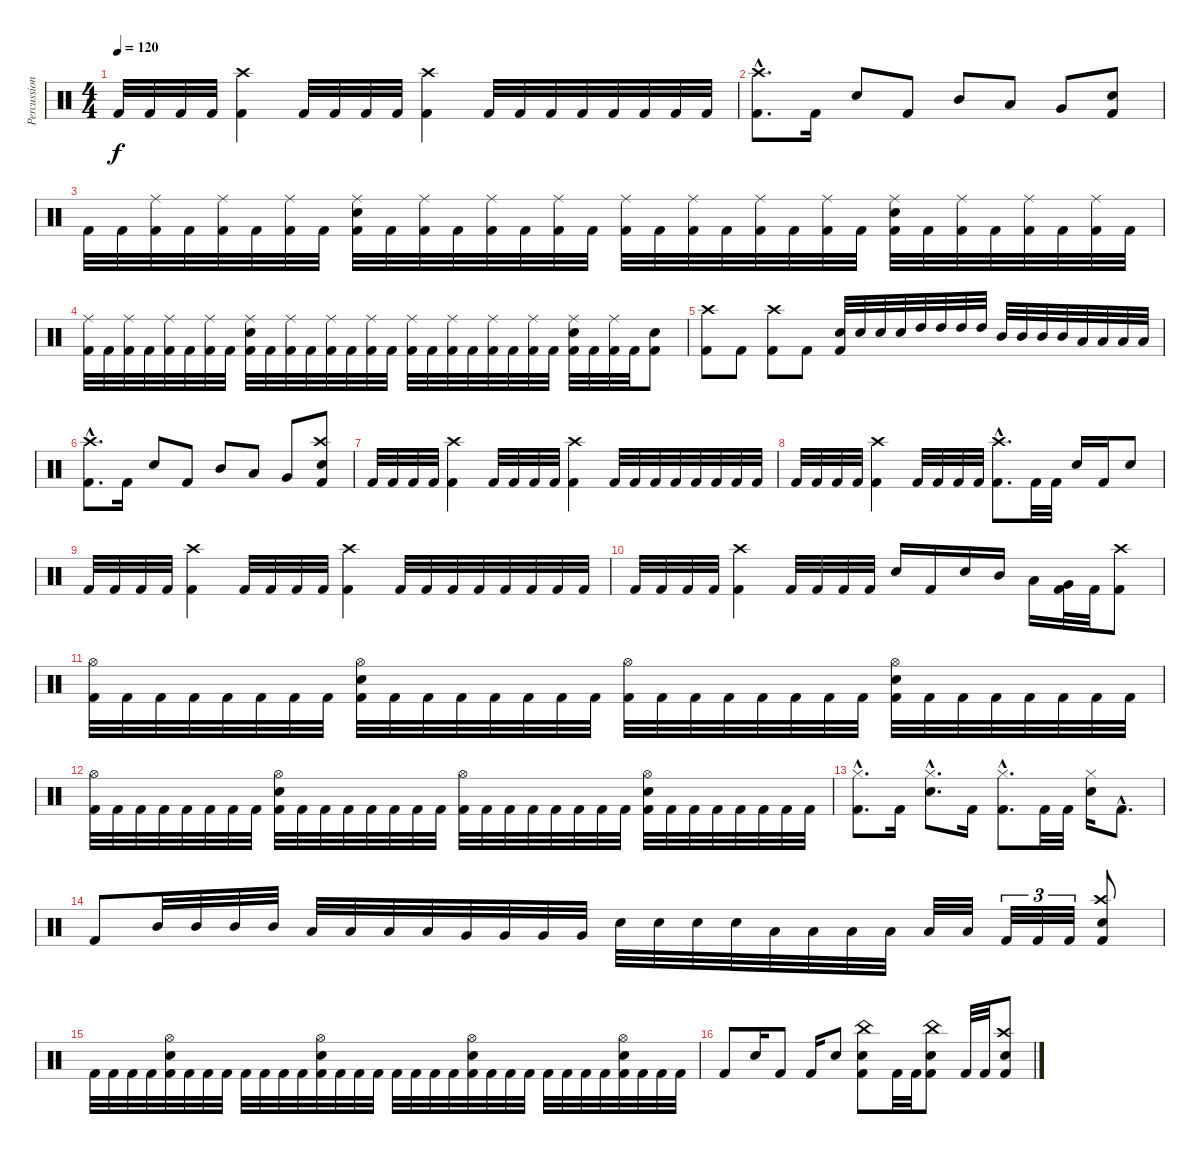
\track ("Percussion" "Percussion") {instrument percussion}
\staff {score}
\articulation defaults
\ts (4 4)
\tempo 120
\clef neutral
\ks c "Kick (hit) 2".32{dy f} "Kick (hit) 2".32 "Kick (hit) 2".32 "Kick (hit) 2".32
("Crash high (hit)" "Kick (hit) 2").4 "Kick (hit) 2".32 "Kick (hit) 2".32 "Kick (hit) 2".32 "Kick (hit) 2".32 ("Crash high (hit)" "Kick (hit) 2").4 "Kick (hit) 2".32 "Kick (hit) 2".32 "Kick (hit) 2".32 "Kick (hit) 2".32 "Kick (hit) 2".32 "Kick (hit) 2".32 "Kick (hit) 2".32 "Kick (hit) 2".32 |
("Crash high (hit)"{hac} "Kick (hit) 2"{hac}).8{d} "Kick (hit) 2".16 "Snare (hit) 2".8 "Kick (hit) 2".8 "Mid Tom (hit)".8 "Low Tom (hit)".8 "Very Low Tom (hit)".8 ("Snare (hit) 2" "Kick (hit) 2").8 |
"Kick (hit) 2".32 "Kick (hit) 2".32 ("Ride (middle)" "Kick (hit) 2").32 "Kick (hit) 2".32 ("Ride (middle)" "Kick (hit) 2").32 "Kick (hit) 2".32 ("Ride (middle)" "Kick (hit) 2").32 "Kick (hit) 2".32 ("Ride (middle)" "Snare (hit) 2" "Kick (hit) 2").32 "Kick (hit) 2".32 ("Ride (middle)" "Kick (hit) 2").32 "Kick (hit) 2".32 ("Ride (middle)" "Kick (hit) 2").32 "Kick (hit) 2".32 ("Ride (middle)" "Kick (hit) 2").32 "Kick (hit) 2".32 ("Ride (middle)" "Kick (hit) 2").32 "Kick (hit) 2".32 ("Ride (middle)" "Kick (hit) 2").32 "Kick (hit) 2".32 ("Ride (middle)" "Kick (hit) 2").32 "Kick (hit) 2".32 ("Ride (middle)" "Kick (hit) 2").32 "Kick (hit) 2".32 ("Ride (middle)" "Snare (hit) 2" "Kick (hit) 2").32 "Kick (hit) 2".32 ("Ride (middle)" "Kick (hit) 2").32 "Kick (hit) 2".32 ("Ride (middle)" "Kick (hit) 2").32 "Kick (hit) 2".32 ("Ride (middle)" "Kick (hit) 2").32 "Kick (hit) 2".32 |
("Ride (middle)" "Kick (hit) 2").32 "Kick (hit) 2".32 ("Ride (middle)" "Kick (hit) 2").32 "Kick (hit) 2".32 ("Ride (middle)" "Kick (hit) 2").32 "Kick (hit) 2".32 ("Ride (middle)" "Kick (hit) 2").32 "Kick (hit) 2".32 ("Ride (middle)" "Snare (hit) 2" "Kick (hit) 2").32 "Kick (hit) 2".32 ("Ride (middle)" "Kick (hit) 2").32 "Kick (hit) 2".32 ("Ride (middle)" "Kick (hit) 2").32 "Kick (hit) 2".32 ("Ride (middle)" "Kick (hit) 2").32 "Kick (hit) 2".32 ("Ride (middle)" "Kick (hit) 2").32 "Kick (hit) 2".32 ("Ride (middle)" "Kick (hit) 2").32 "Kick (hit) 2".32 ("Ride (middle)" "Kick (hit) 2").32 "Kick (hit) 2".32 ("Ride (middle)" "Kick (hit) 2").32 "Kick (hit) 2".32 ("Ride (middle)" "Snare (hit) 2" "Kick (hit) 2").32 "Kick (hit) 2".32 ("Ride (middle)" "Kick (hit) 2").32 "Kick (hit) 2".32 ("Snare (hit) 2" "Kick (hit) 2").8 |
("Crash high (hit)" "Kick (hit) 2").8 "Kick (hit) 2".8 ("Crash high (hit)" "Kick (hit) 2").8 "Kick (hit) 2".8 ("Snare (hit) 2" "Kick (hit) 2").32 "Snare (hit) 2".32 "Snare (hit) 2".32 "Snare (hit) 2".32 "High Tom (hit)".32 "High Tom (hit)".32 "High Tom (hit)".32 "High Tom (hit)".32 "Mid Tom (hit)".32 "Mid Tom (hit)".32 "Mid Tom (hit)".32 "Mid Tom (hit)".32 "Low Tom (hit)".32 "Low Tom (hit)".32 "Low Tom (hit)".32 "Low Tom (hit)".32 |
("Crash high (hit)"{hac} "Kick (hit) 2"{hac}).8{d} "Kick (hit) 2".16 "Snare (hit) 2".8 "Kick (hit) 2".8 "Mid Tom (hit)".8 "Low Tom (hit)".8 "Very Low Tom (hit)".8 ("Crash high (hit)" "Snare (hit) 2" "Kick (hit) 2").8 |
"Kick (hit) 2".32 "Kick (hit) 2".32 "Kick (hit) 2".32 "Kick (hit) 2".32 ("Crash high (hit)" "Kick (hit) 2").4 "Kick (hit) 2".32 "Kick (hit) 2".32 "Kick (hit) 2".32 "Kick (hit) 2".32 ("Crash high (hit)" "Kick (hit) 2").4 "Kick (hit) 2".32 "Kick (hit) 2".32 "Kick (hit) 2".32 "Kick (hit) 2".32 "Kick (hit) 2".32 "Kick (hit) 2".32 "Kick (hit) 2".32 "Kick (hit) 2".32 |
"Kick (hit) 2".32 "Kick (hit) 2".32 "Kick (hit) 2".32 "Kick (hit) 2".32 ("Crash high (hit)" "Kick (hit) 2").4 "Kick (hit) 2".32 "Kick (hit) 2".32 "Kick (hit) 2".32 "Kick (hit) 2".32 ("Crash high (hit)"{hac} "Kick (hit) 2"{hac}).8{d} "Kick (hit) 2".32 "Kick (hit) 2".32 "Snare (hit) 2".16 "Kick (hit) 2".16 "Snare (hit) 2".8 |
"Kick (hit) 2".32 "Kick (hit) 2".32 "Kick (hit) 2".32 "Kick (hit) 2".32 ("Crash high (hit)" "Kick (hit) 2").4 "Kick (hit) 2".32 "Kick (hit) 2".32 "Kick (hit) 2".32 "Kick (hit) 2".32 ("Crash high (hit)" "Kick (hit) 2").4 "Kick (hit) 2".32 "Kick (hit) 2".32 "Kick (hit) 2".32 "Kick (hit) 2".32 "Kick (hit) 2".32 "Kick (hit) 2".32 "Kick (hit) 2".32 "Kick (hit) 2".32 |
"Kick (hit) 2".32 "Kick (hit) 2".32 "Kick (hit) 2".32 "Kick (hit) 2".32 ("Crash high (hit)" "Kick (hit) 2").4 "Kick (hit) 2".32 "Kick (hit) 2".32 "Kick (hit) 2".32 "Kick (hit) 2".32 "Snare (hit) 2".16 "Kick (hit) 2".16 "Snare (hit) 2".16 "Mid Tom (hit)".16 "Low Tom (hit)".16 ("Very Low Tom (hit)" "Kick (hit) 2").32 "Kick (hit) 2".32 ("Crash high (hit)" "Kick (hit) 2").8 |
("Hi-Hat (open)" "Kick (hit) 2").32 "Kick (hit) 2".32 "Kick (hit) 2".32 "Kick (hit) 2".32 "Kick (hit) 2".32 "Kick (hit) 2".32 "Kick (hit) 2".32 "Kick (hit) 2".32 ("Hi-Hat (open)" "Snare (hit) 2" "Kick (hit) 2").32 "Kick (hit) 2".32 "Kick (hit) 2".32 "Kick (hit) 2".32 "Kick (hit) 2".32 "Kick (hit) 2".32 "Kick (hit) 2".32 "Kick (hit) 2".32 ("Hi-Hat (open)" "Kick (hit) 2").32 "Kick (hit) 2".32 "Kick (hit) 2".32 "Kick (hit) 2".32 "Kick (hit) 2".32 "Kick (hit) 2".32 "Kick (hit) 2".32 "Kick (hit) 2".32 ("Hi-Hat (open)" "Snare (hit) 2" "Kick (hit) 2").32 "Kick (hit) 2".32 "Kick (hit) 2".32 "Kick (hit) 2".32 "Kick (hit) 2".32 "Kick (hit) 2".32 "Kick (hit) 2".32 "Kick (hit) 2".32 |
("Hi-Hat (open)" "Kick (hit) 2").32 "Kick (hit) 2".32 "Kick (hit) 2".32 "Kick (hit) 2".32 "Kick (hit) 2".32 "Kick (hit) 2".32 "Kick (hit) 2".32 "Kick (hit) 2".32 ("Hi-Hat (open)" "Snare (hit) 2" "Kick (hit) 2").32 "Kick (hit) 2".32 "Kick (hit) 2".32 "Kick (hit) 2".32 "Kick (hit) 2".32 "Kick (hit) 2".32 "Kick (hit) 2".32 "Kick (hit) 2".32 ("Hi-Hat (open)" "Kick (hit) 2").32 "Kick (hit) 2".32 "Kick (hit) 2".32 "Kick (hit) 2".32 "Kick (hit) 2".32 "Kick (hit) 2".32 "Kick (hit) 2".32 "Kick (hit) 2".32 ("Hi-Hat (open)" "Snare (hit) 2" "Kick (hit) 2").32 "Kick (hit) 2".32 "Kick (hit) 2".32 "Kick (hit) 2".32 "Kick (hit) 2".32 "Kick (hit) 2".32 "Kick (hit) 2".32 "Kick (hit) 2".32 |
("Hi-Hat (closed)"{hac} "Kick (hit) 2"{hac}).8{d} "Kick (hit) 2".16 ("Hi-Hat (closed)"{hac} "Snare (hit) 2"{hac}).8{d} "Kick (hit) 2".16 ("Hi-Hat (closed)"{hac} "Kick (hit) 2"{hac}).8{d} "Kick (hit) 2".32 "Kick (hit) 2".32 ("Hi-Hat (closed)" "Snare (hit) 2").16 "Kick (hit) 2"{hac}.8{d} |
"Kick (hit) 2".8 "Mid Tom (hit)".32 "Mid Tom (hit)".32 "Mid Tom (hit)".32 "Mid Tom (hit)".32 "Low Tom (hit)".32 "Low Tom (hit)".32 "Low Tom (hit)".32 "Low Tom (hit)".32 "Very Low Tom (hit)".32 "Very Low Tom (hit)".32 "Very Low Tom (hit)".32 "Very Low Tom (hit)".32 "Snare (hit) 2".32 "Snare (hit) 2".32 "Snare (hit) 2".32 "Snare (hit) 2".32 "Low Tom (hit)".32 "Low Tom (hit)".32 "Low Tom (hit)".32 "Low Tom (hit)".32 "Low Tom (hit)".32 "Low Tom (hit)".32 "Kick (hit) 2".32{tu (3 2)} "Kick (hit) 2".32{tu (3 2)} "Kick (hit) 2".32{tu (3 2)} ("Crash high (hit)" "Snare (hit) 2" "Kick (hit) 2").8 |
"Kick (hit) 2".32 "Kick (hit) 2".32 "Kick (hit) 2".32 "Kick (hit) 2".32 ("Hi-Hat (open)" "Snare (hit) 2" "Kick (hit) 2").32 "Kick (hit) 2".32 "Kick (hit) 2".32 "Kick (hit) 2".32 "Kick (hit) 2".32 "Kick (hit) 2".32 "Kick (hit) 2".32 "Kick (hit) 2".32 ("Hi-Hat (open)" "Snare (hit) 2" "Kick (hit) 2").32 "Kick (hit) 2".32 "Kick (hit) 2".32 "Kick (hit) 2".32 "Kick (hit) 2".32 "Kick (hit) 2".32 "Kick (hit) 2".32 "Kick (hit) 2".32 ("Hi-Hat (open)" "Snare (hit) 2" "Kick (hit) 2").32 "Kick (hit) 2".32 "Kick (hit) 2".32 "Kick (hit) 2".32 "Kick (hit) 2".32 "Kick (hit) 2".32 "Kick (hit) 2".32 "Kick (hit) 2".32 ("Hi-Hat (open)" "Snare (hit) 2" "Kick (hit) 2").32 "Kick (hit) 2".32 "Kick (hit) 2".32 "Kick (hit) 2".32 |
"Kick (hit) 2".8 "Snare (hit) 2".16 "Kick (hit) 2".8 "Kick (hit) 2".16 "Snare (hit) 2".8 ("China (hit)" "Snare (hit) 2" "Kick (hit) 2").8 "Kick (hit) 2".32 "Kick (hit) 2".32 ("China (hit)" "Snare (hit) 2" "Kick (hit) 2").8 "Kick (hit) 2".32 "Kick (hit) 2".32 ("Crash high (hit)" "Snare (hit) 2" "Kick (hit) 2").8
